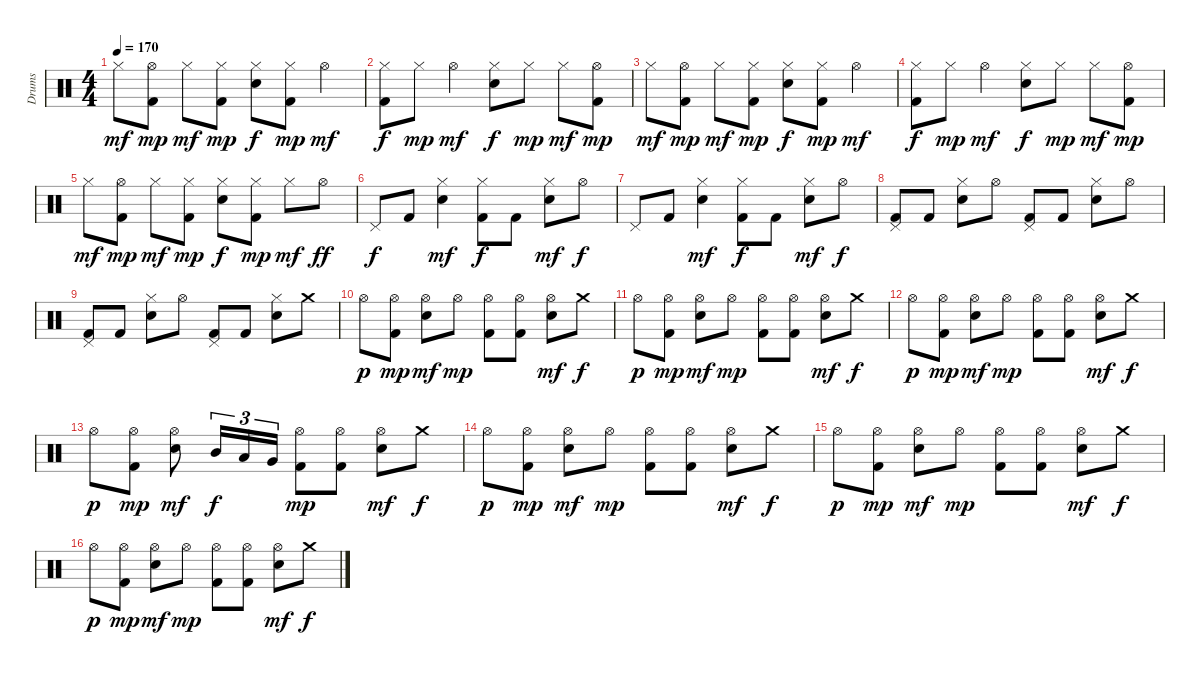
\track ("Drums" "Drums") {instrument percussion}
\staff {score}
\articulation defaults
\ts (4 4)
\tempo 170
\clef neutral
\ks c "Hi-Hat (closed)".8{dy mf}
("Hi-Hat (open)" "Kick (hit) 2").8{dy mp} "Hi-Hat (closed)".8{dy mf} ("Hi-Hat (closed)" "Kick (hit) 2").8{dy mp} ("Hi-Hat (closed)" "Electric Snare (hit)").8{dy f} ("Hi-Hat (closed)" "Kick (hit) 2").8{dy mp} "Hi-Hat (open)".4{dy mf} |
("Hi-Hat (closed)" "Kick (hit) 2").8{dy f} "Hi-Hat (closed)".8{dy mp} "Hi-Hat (open)".4{dy mf} ("Hi-Hat (closed)" "Electric Snare (hit)").8{dy f} "Hi-Hat (closed)".8{dy mp} "Hi-Hat (closed)".8{dy mf} ("Hi-Hat (open)" "Kick (hit) 2").8{dy mp} |
"Hi-Hat (closed)".8{dy mf} ("Hi-Hat (open)" "Kick (hit) 2").8{dy mp} "Hi-Hat (closed)".8{dy mf} ("Hi-Hat (closed)" "Kick (hit) 2").8{dy mp} ("Hi-Hat (closed)" "Electric Snare (hit)").8{dy f} ("Hi-Hat (closed)" "Kick (hit) 2").8{dy mp} "Hi-Hat (open)".4{dy mf} |
("Hi-Hat (closed)" "Kick (hit) 2").8{dy f} "Hi-Hat (closed)".8{dy mp} "Hi-Hat (open)".4{dy mf} ("Hi-Hat (closed)" "Electric Snare (hit)").8{dy f} "Hi-Hat (closed)".8{dy mp} "Hi-Hat (closed)".8{dy mf} ("Hi-Hat (open)" "Kick (hit) 2").8{dy mp} |
"Hi-Hat (closed)".8{dy mf} ("Hi-Hat (open)" "Kick (hit) 2").8{dy mp} "Hi-Hat (closed)".8{dy mf} ("Hi-Hat (closed)" "Kick (hit) 2").8{dy mp} ("Hi-Hat (closed)" "Electric Snare (hit)").8{dy f} ("Hi-Hat (closed)" "Kick (hit) 2").8{dy mp} "Hi-Hat (closed)".8{dy mf} "Hi-Hat (open)".8{dy ff} |
"Pedal Hi-Hat (hit)".8{dy f} "Kick (hit) 2".8 ("Hi-Hat (closed)" "Electric Snare (hit)").4{dy mf} ("Hi-Hat (closed)" "Kick (hit) 2").8{dy f} "Kick (hit) 2".8 ("Hi-Hat (closed)" "Electric Snare (hit)").8{dy mf} "Hi-Hat (open)".8{dy f} |
"Pedal Hi-Hat (hit)".8 "Kick (hit) 2".8 ("Hi-Hat (closed)" "Electric Snare (hit)").4{dy mf} ("Hi-Hat (closed)" "Kick (hit) 2").8{dy f} "Kick (hit) 2".8 ("Hi-Hat (closed)" "Electric Snare (hit)").8{dy mf} "Hi-Hat (open)".8{dy f} |
("Pedal Hi-Hat (hit)" "Kick (hit) 2").8 "Kick (hit) 2".8 ("Hi-Hat (closed)" "Electric Snare (hit)").8 "Hi-Hat (open)".8 ("Pedal Hi-Hat (hit)" "Kick (hit) 2").8 "Kick (hit) 2".8 ("Hi-Hat (closed)" "Electric Snare (hit)").8 "Hi-Hat (open)".8 |
("Pedal Hi-Hat (hit)" "Kick (hit) 2").8 "Kick (hit) 2".8 ("Hi-Hat (closed)" "Electric Snare (hit)").8 "Hi-Hat (open)".8 ("Pedal Hi-Hat (hit)" "Kick (hit) 2").8 "Kick (hit) 2".8 ("Hi-Hat (closed)" "Electric Snare (hit)").8 "Crash medium (hit)".8 |
"Hi-Hat (open)".8{dy p} ("Hi-Hat (open)" "Kick (hit) 2").8{dy mp} ("Hi-Hat (open)" "Electric Snare (hit)").8{dy mf} "Hi-Hat (open)".8{dy mp} ("Hi-Hat (open)" "Kick (hit) 2").8 ("Hi-Hat (open)" "Kick (hit) 2").8 ("Hi-Hat (open)" "Electric Snare (hit)").8{dy mf} "Crash medium (hit)".8{dy f} |
"Hi-Hat (open)".8{dy p} ("Hi-Hat (open)" "Kick (hit) 2").8{dy mp} ("Hi-Hat (open)" "Electric Snare (hit)").8{dy mf} "Hi-Hat (open)".8{dy mp} ("Hi-Hat (open)" "Kick (hit) 2").8 ("Hi-Hat (open)" "Kick (hit) 2").8 ("Hi-Hat (open)" "Electric Snare (hit)").8{dy mf} "Crash medium (hit)".8{dy f} |
"Hi-Hat (open)".8{dy p} ("Hi-Hat (open)" "Kick (hit) 2").8{dy mp} ("Hi-Hat (open)" "Electric Snare (hit)").8{dy mf} "Hi-Hat (open)".8{dy mp} ("Hi-Hat (open)" "Kick (hit) 2").8 ("Hi-Hat (open)" "Kick (hit) 2").8 ("Hi-Hat (open)" "Electric Snare (hit)").8{dy mf} "Crash medium (hit)".8{dy f} |
"Hi-Hat (open)".8{dy p} ("Hi-Hat (open)" "Kick (hit) 2").8{dy mp} ("Hi-Hat (open)" "Electric Snare (hit)").8{dy mf} "Mid Tom (hit)".16{tu (3 2) dy f} "Low Tom (hit)".16{tu (3 2)} "Very Low Tom (hit)".16{tu (3 2)} ("Hi-Hat (open)" "Kick (hit) 2").8{dy mp} ("Hi-Hat (open)" "Kick (hit) 2").8 ("Hi-Hat (open)" "Electric Snare (hit)").8{dy mf} "Crash medium (hit)".8{dy f} |
"Hi-Hat (open)".8{dy p} ("Hi-Hat (open)" "Kick (hit) 2").8{dy mp} ("Hi-Hat (open)" "Electric Snare (hit)").8{dy mf} "Hi-Hat (open)".8{dy mp} ("Hi-Hat (open)" "Kick (hit) 2").8 ("Hi-Hat (open)" "Kick (hit) 2").8 ("Hi-Hat (open)" "Electric Snare (hit)").8{dy mf} "Crash medium (hit)".8{dy f} |
"Hi-Hat (open)".8{dy p} ("Hi-Hat (open)" "Kick (hit) 2").8{dy mp} ("Hi-Hat (open)" "Electric Snare (hit)").8{dy mf} "Hi-Hat (open)".8{dy mp} ("Hi-Hat (open)" "Kick (hit) 2").8 ("Hi-Hat (open)" "Kick (hit) 2").8 ("Hi-Hat (open)" "Electric Snare (hit)").8{dy mf} "Crash medium (hit)".8{dy f} |
"Hi-Hat (open)".8{dy p} ("Hi-Hat (open)" "Kick (hit) 2").8{dy mp} ("Hi-Hat (open)" "Electric Snare (hit)").8{dy mf} "Hi-Hat (open)".8{dy mp} ("Hi-Hat (open)" "Kick (hit) 2").8 ("Hi-Hat (open)" "Kick (hit) 2").8 ("Hi-Hat (open)" "Electric Snare (hit)").8{dy mf} "Crash medium (hit)".8{dy f}
